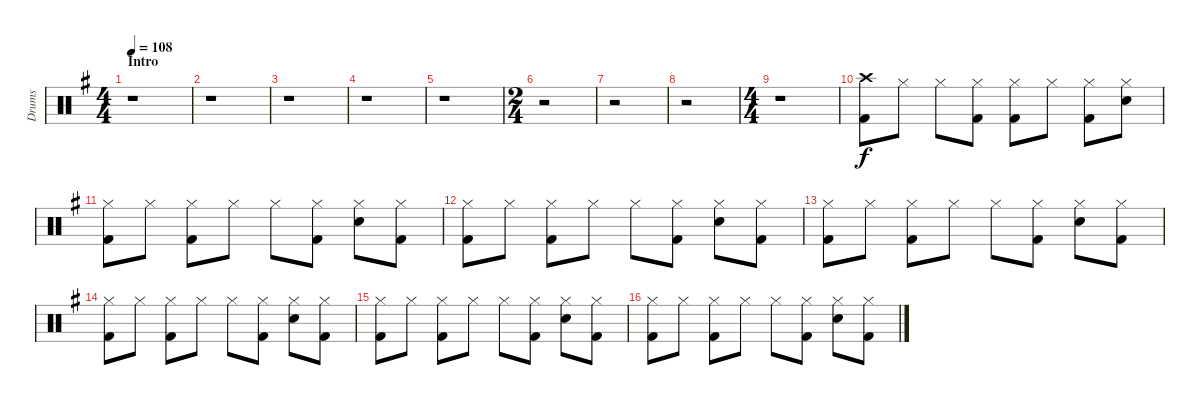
\track ("Drums" "Drums") {instrument percussion}
\staff {score}
\articulation defaults
\ts (4 4)
\section ("" "Intro")
\tempo 108
\clef neutral
\ks g
r.1{dy f} |
r.1 |
r.1 |
r.1 |
r.1 |
\ts (2 4)
r.2 |
r.2 |
r.2 |
\ts (4 4)
r.1 |
("Crash high (hit)" "Kick (hit) 2").8 "Hi-Hat (closed)".8 "Hi-Hat (closed)".8 ("Hi-Hat (closed)" "Kick (hit) 2").8 ("Hi-Hat (closed)" "Kick (hit) 2").8 "Hi-Hat (closed)".8 ("Hi-Hat (closed)" "Kick (hit) 2").8 ("Hi-Hat (closed)" "Snare (hit) 2").8 |
("Hi-Hat (closed)" "Kick (hit) 2").8 "Hi-Hat (closed)".8 ("Hi-Hat (closed)" "Kick (hit) 2").8 "Hi-Hat (closed)".8 "Hi-Hat (closed)".8 ("Hi-Hat (closed)" "Kick (hit) 2").8 ("Hi-Hat (closed)" "Snare (hit) 2").8 ("Hi-Hat (closed)" "Kick (hit) 2").8 |
("Hi-Hat (closed)" "Kick (hit) 2").8 "Hi-Hat (closed)".8 ("Hi-Hat (closed)" "Kick (hit) 2").8 "Hi-Hat (closed)".8 "Hi-Hat (closed)".8 ("Hi-Hat (closed)" "Kick (hit) 2").8 ("Hi-Hat (closed)" "Snare (hit) 2").8 ("Hi-Hat (closed)" "Kick (hit) 2").8 |
("Hi-Hat (closed)" "Kick (hit) 2").8 "Hi-Hat (closed)".8 ("Hi-Hat (closed)" "Kick (hit) 2").8 "Hi-Hat (closed)".8 "Hi-Hat (closed)".8 ("Hi-Hat (closed)" "Kick (hit) 2").8 ("Hi-Hat (closed)" "Snare (hit) 2").8 ("Hi-Hat (closed)" "Kick (hit) 2").8 |
("Hi-Hat (closed)" "Kick (hit) 2").8 "Hi-Hat (closed)".8 ("Hi-Hat (closed)" "Kick (hit) 2").8 "Hi-Hat (closed)".8 "Hi-Hat (closed)".8 ("Hi-Hat (closed)" "Kick (hit) 2").8 ("Hi-Hat (closed)" "Snare (hit) 2").8 ("Hi-Hat (closed)" "Kick (hit) 2").8 |
("Hi-Hat (closed)" "Kick (hit) 2").8 "Hi-Hat (closed)".8 ("Hi-Hat (closed)" "Kick (hit) 2").8 "Hi-Hat (closed)".8 "Hi-Hat (closed)".8 ("Hi-Hat (closed)" "Kick (hit) 2").8 ("Hi-Hat (closed)" "Snare (hit) 2").8 ("Hi-Hat (closed)" "Kick (hit) 2").8 |
("Hi-Hat (closed)" "Kick (hit) 2").8 "Hi-Hat (closed)".8 ("Hi-Hat (closed)" "Kick (hit) 2").8 "Hi-Hat (closed)".8 "Hi-Hat (closed)".8 ("Hi-Hat (closed)" "Kick (hit) 2").8 ("Hi-Hat (closed)" "Snare (hit) 2").8 ("Hi-Hat (closed)" "Kick (hit) 2").8
